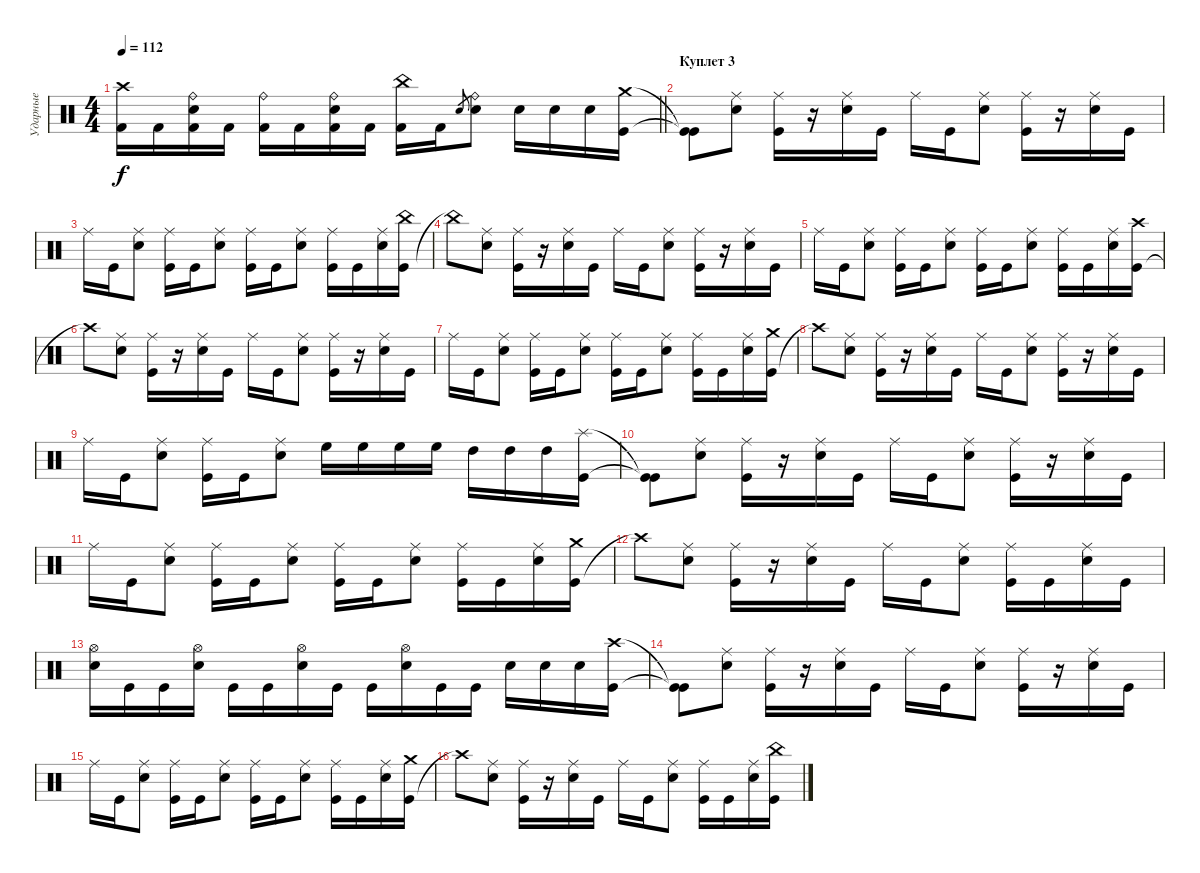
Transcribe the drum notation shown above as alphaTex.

\track ("Ударные" "Ударные") {instrument percussion}
\staff {score}
\articulation defaults
\ts (4 4)
\tempo 112
\clef neutral
\barLineRight lightlight
\ks aminor
("Kick (hit) 2" "Crash high (hit)").16{dy f} "Kick (hit) 2".16 ("Electric Snare (hit)" "Ride (bell)" "Kick (hit) 2").16 "Kick (hit) 2".16 ("Kick (hit) 2" "Ride (bell)").16 "Kick (hit) 2".16 ("Kick (hit) 2" "Electric Snare (hit)" "Ride (bell)").16 "Kick (hit) 2".16 ("Kick (hit) 2" "China (hit)").16 "Kick (hit) 2".16 "Electric Snare (hit)".8{gr} ("Electric Snare (hit)" "Ride (bell)").8 "Electric Snare (hit)".16 "Electric Snare (hit)".16 "Electric Snare (hit)".16 ("Kick (hit)" "Crash medium (hit)").16 |
\section ("" "Куплет 3")
("Kick (hit)"{t} "Kick (hit)"{t}).8 ("Electric Snare (hit)" "Ride (middle)").8 ("Kick (hit)" "Ride (middle)").16 r.16 ("Electric Snare (hit)" "Ride (middle)").16 "Kick (hit)".16 "Ride (middle)".16 "Kick (hit)".16 ("Electric Snare (hit)" "Ride (middle)").8 ("Kick (hit)" "Ride (middle)").16 r.16 ("Electric Snare (hit)" "Ride (middle)").16 "Kick (hit)".16 |
"Ride (middle)".16 "Kick (hit)".16 ("Electric Snare (hit)" "Ride (middle)").8 ("Kick (hit)" "Ride (middle)").16 "Kick (hit)".16 ("Electric Snare (hit)" "Ride (middle)").8 ("Kick (hit)" "Ride (middle)").16 "Kick (hit)".16 ("Electric Snare (hit)" "Ride (middle)").8 ("Kick (hit)" "Ride (middle)").16 "Kick (hit)".16 ("Electric Snare (hit)" "Ride (middle)").16 ("Kick (hit)" "China (hit)").16 |
"China (hit)"{t}.8 ("Electric Snare (hit)" "Ride (middle)").8 ("Kick (hit)" "Ride (middle)").16 r.16 ("Electric Snare (hit)" "Ride (middle)").16 "Kick (hit)".16 "Ride (middle)".16 "Kick (hit)".16 ("Electric Snare (hit)" "Ride (middle)").8 ("Kick (hit)" "Ride (middle)").16 r.16 ("Electric Snare (hit)" "Ride (middle)").16 "Kick (hit)".16 |
"Ride (middle)".16 "Kick (hit)".16 ("Electric Snare (hit)" "Ride (middle)").8 ("Kick (hit)" "Ride (middle)").16 "Kick (hit)".16 ("Electric Snare (hit)" "Ride (middle)").8 ("Kick (hit)" "Ride (middle)").16 "Kick (hit)".16 ("Electric Snare (hit)" "Ride (middle)").8 ("Kick (hit)" "Ride (middle)").16 "Kick (hit)".16 ("Electric Snare (hit)" "Ride (middle)").16 ("Kick (hit)" "Crash high (hit)").16 |
"Crash high (hit)"{t}.8 ("Electric Snare (hit)" "Ride (middle)").8 ("Kick (hit)" "Ride (middle)").16 r.16 ("Electric Snare (hit)" "Ride (middle)").16 "Kick (hit)".16 "Ride (middle)".16 "Kick (hit)".16 ("Electric Snare (hit)" "Ride (middle)").8 ("Kick (hit)" "Ride (middle)").16 r.16 ("Electric Snare (hit)" "Ride (middle)").16 "Kick (hit)".16 |
"Ride (middle)".16 "Kick (hit)".16 ("Electric Snare (hit)" "Ride (middle)").8 ("Kick (hit)" "Ride (middle)").16 "Kick (hit)".16 ("Electric Snare (hit)" "Ride (middle)").8 ("Kick (hit)" "Ride (middle)").16 "Kick (hit)".16 ("Electric Snare (hit)" "Ride (middle)").8 ("Kick (hit)" "Ride (middle)").16 "Kick (hit)".16 ("Electric Snare (hit)" "Ride (middle)").16 ("Kick (hit)" "Crash medium (hit)").16 |
"Crash high (hit)"{t}.8 ("Electric Snare (hit)" "Ride (middle)").8 ("Kick (hit)" "Ride (middle)").16 r.16 ("Electric Snare (hit)" "Ride (middle)").16 "Kick (hit)".16 "Ride (middle)".16 "Kick (hit)".16 ("Electric Snare (hit)" "Ride (middle)").8 ("Kick (hit)" "Ride (middle)").16 r.16 ("Electric Snare (hit)" "Ride (middle)").16 "Kick (hit)".16 |
"Ride (middle)".16 "Kick (hit)".16 ("Electric Snare (hit)" "Ride (middle)").8 ("Kick (hit)" "Ride (middle)").16 "Kick (hit)".16 ("Electric Snare (hit)" "Ride (middle)").8 "High Floor Tom (hit)".16 "High Floor Tom (hit)".16 "High Floor Tom (hit)".16 "High Floor Tom (hit)".16 "High Tom (hit)".16 "High Tom (hit)".16 "High Tom (hit)".16 ("Kick (hit)" "Splash (hit)").16 |
("Kick (hit)"{t} "Kick (hit)"{t}).8 ("Electric Snare (hit)" "Ride (middle)").8 ("Kick (hit)" "Ride (middle)").16 r.16 ("Electric Snare (hit)" "Ride (middle)").16 "Kick (hit)".16 "Ride (middle)".16 "Kick (hit)".16 ("Electric Snare (hit)" "Ride (middle)").8 ("Kick (hit)" "Ride (middle)").16 r.16 ("Electric Snare (hit)" "Ride (middle)").16 "Kick (hit)".16 |
"Ride (middle)".16 "Kick (hit)".16 ("Electric Snare (hit)" "Ride (middle)").8 ("Kick (hit)" "Ride (middle)").16 "Kick (hit)".16 ("Electric Snare (hit)" "Ride (middle)").8 ("Kick (hit)" "Ride (middle)").16 "Kick (hit)".16 ("Electric Snare (hit)" "Ride (middle)").8 ("Kick (hit)" "Ride (middle)").16 "Kick (hit)".16 ("Electric Snare (hit)" "Ride (middle)").16 ("Kick (hit)" "Crash medium (hit)").16 |
"Crash high (hit)"{t}.8 ("Electric Snare (hit)" "Ride (middle)").8 ("Kick (hit)" "Ride (middle)").16 r.16 ("Electric Snare (hit)" "Ride (middle)").16 "Kick (hit)".16 "Ride (middle)".16 "Kick (hit)".16 ("Electric Snare (hit)" "Ride (middle)").8 ("Kick (hit)" "Ride (middle)").16 "Kick (hit)".16 ("Electric Snare (hit)" "Ride (middle)").16 "Kick (hit)".16 |
("Electric Snare (hit)" "Hi-Hat (open)").16 "Kick (hit)".16 "Kick (hit)".16 ("Electric Snare (hit)" "Hi-Hat (open)").16 "Kick (hit)".16 "Kick (hit)".16 ("Electric Snare (hit)" "Hi-Hat (open)").16 "Kick (hit)".16 "Kick (hit)".16 ("Electric Snare (hit)" "Hi-Hat (open)").16 "Kick (hit)".16 "Kick (hit)".16 "Electric Snare (hit)".16 "Electric Snare (hit)".16 "Electric Snare (hit)".16 ("Kick (hit)" "Crash high (hit)").16 |
("Kick (hit)"{t} "Kick (hit)"{t}).8 ("Electric Snare (hit)" "Ride (middle)").8 ("Kick (hit)" "Ride (middle)").16 r.16 ("Electric Snare (hit)" "Ride (middle)").16 "Kick (hit)".16 "Ride (middle)".16 "Kick (hit)".16 ("Electric Snare (hit)" "Ride (middle)").8 ("Kick (hit)" "Ride (middle)").16 r.16 ("Electric Snare (hit)" "Ride (middle)").16 "Kick (hit)".16 |
"Ride (middle)".16 "Kick (hit)".16 ("Electric Snare (hit)" "Ride (middle)").8 ("Kick (hit)" "Ride (middle)").16 "Kick (hit)".16 ("Electric Snare (hit)" "Ride (middle)").8 ("Kick (hit)" "Ride (middle)").16 "Kick (hit)".16 ("Electric Snare (hit)" "Ride (middle)").8 ("Kick (hit)" "Ride (middle)").16 "Kick (hit)".16 ("Electric Snare (hit)" "Ride (middle)").16 ("Kick (hit)" "Crash medium (hit)").16 |
"Crash high (hit)"{t}.8 ("Electric Snare (hit)" "Ride (middle)").8 ("Kick (hit)" "Ride (middle)").16 r.16 ("Electric Snare (hit)" "Ride (middle)").16 "Kick (hit)".16 "Ride (middle)".16 "Kick (hit)".16 ("Electric Snare (hit)" "Ride (middle)").8 ("Kick (hit)" "Ride (middle)").16 "Kick (hit)".16 ("Electric Snare (hit)" "Ride (middle)").16 ("Kick (hit)" "China (hit)").16
